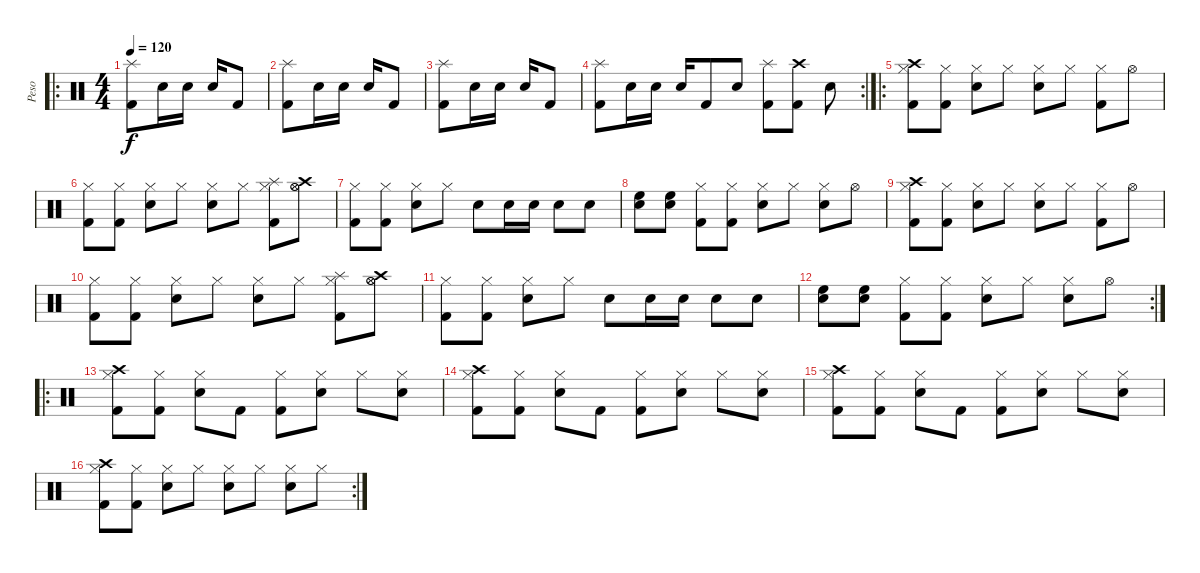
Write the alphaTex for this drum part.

\track ("Peso" "Peso") {instrument percussion}
\staff {score}
\articulation defaults
\ro
\ts (4 4)
\tempo 120
\clef neutral
\ks c
("Splash (hit)" "Kick (hit) 2").8{dy f} "Snare (hit) 2".16 "Snare (hit) 2".16 "Snare (hit) 2".16 "Kick (hit) 2".8 |
("Splash (hit)" "Kick (hit) 2").8 "Snare (hit) 2".16 "Snare (hit) 2".16 "Snare (hit) 2".16 "Kick (hit) 2".8 |
("Splash (hit)" "Kick (hit) 2").8 "Snare (hit) 2".16 "Snare (hit) 2".16 "Snare (hit) 2".16 "Kick (hit) 2".8 |
\rc 2
("Splash (hit)" "Kick (hit) 2").8 "Snare (hit) 2".16 "Snare (hit) 2".16 "Snare (hit) 2".16 "Kick (hit) 2".8 "Snare (hit) 2".8 ("Splash (hit)" "Kick (hit) 2").8 ("Crash high (hit)" "Kick (hit) 2").8 "Snare (hit)"{x}.8 |
\ro
("Crash high (hit)" "Hi-Hat (closed)" "Kick (hit) 2").8 ("Hi-Hat (closed)" "Kick (hit) 2").8 ("Hi-Hat (closed)" "Snare (hit) 2").8 "Hi-Hat (closed)".8 ("Hi-Hat (closed)" "Snare (hit) 2").8 "Hi-Hat (closed)".8 ("Hi-Hat (closed)" "Kick (hit) 2").8 "Hi-Hat (open)".8 |
("Hi-Hat (closed)" "Kick (hit) 2").8 ("Hi-Hat (closed)" "Kick (hit) 2").8 ("Hi-Hat (closed)" "Snare (hit) 2").8 "Hi-Hat (closed)".8 ("Hi-Hat (closed)" "Snare (hit) 2").8 "Hi-Hat (closed)".8 ("Splash (hit)" "Hi-Hat (closed)" "Kick (hit) 2").8 ("Crash high (hit)" "Hi-Hat (open)" "Hi-Hat (open)").8 |
("Hi-Hat (closed)" "Kick (hit) 2").8 ("Hi-Hat (closed)" "Kick (hit) 2").8 ("Hi-Hat (closed)" "Snare (hit) 2").8 "Hi-Hat (closed)".8 "Snare (hit) 2".8 "Snare (hit) 2".16 "Snare (hit) 2".16 "Snare (hit) 2".8 "Snare (hit) 2".8 |
("High Floor Tom (hit)" "Snare (hit) 2").8 ("High Floor Tom (hit)" "Snare (hit) 2").8 ("Hi-Hat (closed)" "Kick (hit) 2").8 ("Hi-Hat (closed)" "Kick (hit) 2").8 ("Hi-Hat (closed)" "Snare (hit) 2").8 "Hi-Hat (closed)".8 ("Hi-Hat (closed)" "Snare (hit) 2").8 "Hi-Hat (open)".8 |
("Crash high (hit)" "Hi-Hat (closed)" "Kick (hit) 2").8 ("Hi-Hat (closed)" "Kick (hit) 2").8 ("Hi-Hat (closed)" "Snare (hit) 2").8 "Hi-Hat (closed)".8 ("Hi-Hat (closed)" "Snare (hit) 2").8 "Hi-Hat (closed)".8 ("Hi-Hat (closed)" "Kick (hit) 2").8 "Hi-Hat (open)".8 |
("Hi-Hat (closed)" "Kick (hit) 2").8 ("Hi-Hat (closed)" "Kick (hit) 2").8 ("Hi-Hat (closed)" "Snare (hit) 2").8 "Hi-Hat (closed)".8 ("Hi-Hat (closed)" "Snare (hit) 2").8 "Hi-Hat (closed)".8 ("Splash (hit)" "Hi-Hat (closed)" "Kick (hit) 2").8 ("Crash high (hit)" "Hi-Hat (open)" "Hi-Hat (open)").8 |
("Hi-Hat (closed)" "Kick (hit) 2").8 ("Hi-Hat (closed)" "Kick (hit) 2").8 ("Hi-Hat (closed)" "Snare (hit) 2").8 "Hi-Hat (closed)".8 "Snare (hit) 2".8 "Snare (hit) 2".16 "Snare (hit) 2".16 "Snare (hit) 2".8 "Snare (hit) 2".8 |
\rc 2
("High Floor Tom (hit)" "Snare (hit) 2").8 ("High Floor Tom (hit)" "Snare (hit) 2").8 ("Hi-Hat (closed)" "Kick (hit) 2").8 ("Hi-Hat (closed)" "Kick (hit) 2").8 ("Hi-Hat (closed)" "Snare (hit) 2").8 "Hi-Hat (closed)".8 ("Hi-Hat (closed)" "Snare (hit) 2").8 "Hi-Hat (open)".8 |
\ro
("Crash high (hit)" "Hi-Hat (closed)" "Kick (hit) 2").8 ("Hi-Hat (closed)" "Kick (hit) 2").8 ("Hi-Hat (closed)" "Snare (hit) 2").8 "Kick (hit) 2".8 ("Hi-Hat (closed)" "Kick (hit) 2").8 ("Hi-Hat (closed)" "Snare (hit) 2").8 "Hi-Hat (closed)".8 ("Hi-Hat (closed)" "Snare (hit) 2").8 |
("Crash high (hit)" "Hi-Hat (closed)" "Kick (hit) 2").8 ("Hi-Hat (closed)" "Kick (hit) 2").8 ("Hi-Hat (closed)" "Snare (hit) 2").8 "Kick (hit) 2".8 ("Hi-Hat (closed)" "Kick (hit) 2").8 ("Hi-Hat (closed)" "Snare (hit) 2").8 "Hi-Hat (closed)".8 ("Hi-Hat (closed)" "Snare (hit) 2").8 |
("Crash high (hit)" "Hi-Hat (closed)" "Kick (hit) 2").8 ("Hi-Hat (closed)" "Kick (hit) 2").8 ("Hi-Hat (closed)" "Snare (hit) 2").8 "Kick (hit) 2".8 ("Hi-Hat (closed)" "Kick (hit) 2").8 ("Hi-Hat (closed)" "Snare (hit) 2").8 "Hi-Hat (closed)".8 ("Hi-Hat (closed)" "Snare (hit) 2").8 |
\rc 2
("Crash high (hit)" "Hi-Hat (closed)" "Kick (hit) 2").8 ("Hi-Hat (closed)" "Kick (hit) 2").8 ("Hi-Hat (closed)" "Snare (hit) 2").8 "Hi-Hat (closed)".8 ("Hi-Hat (closed)" "Snare (hit) 2").8 "Hi-Hat (closed)".8 ("Hi-Hat (closed)" "Snare (hit) 2").8 "Hi-Hat (closed)".8
